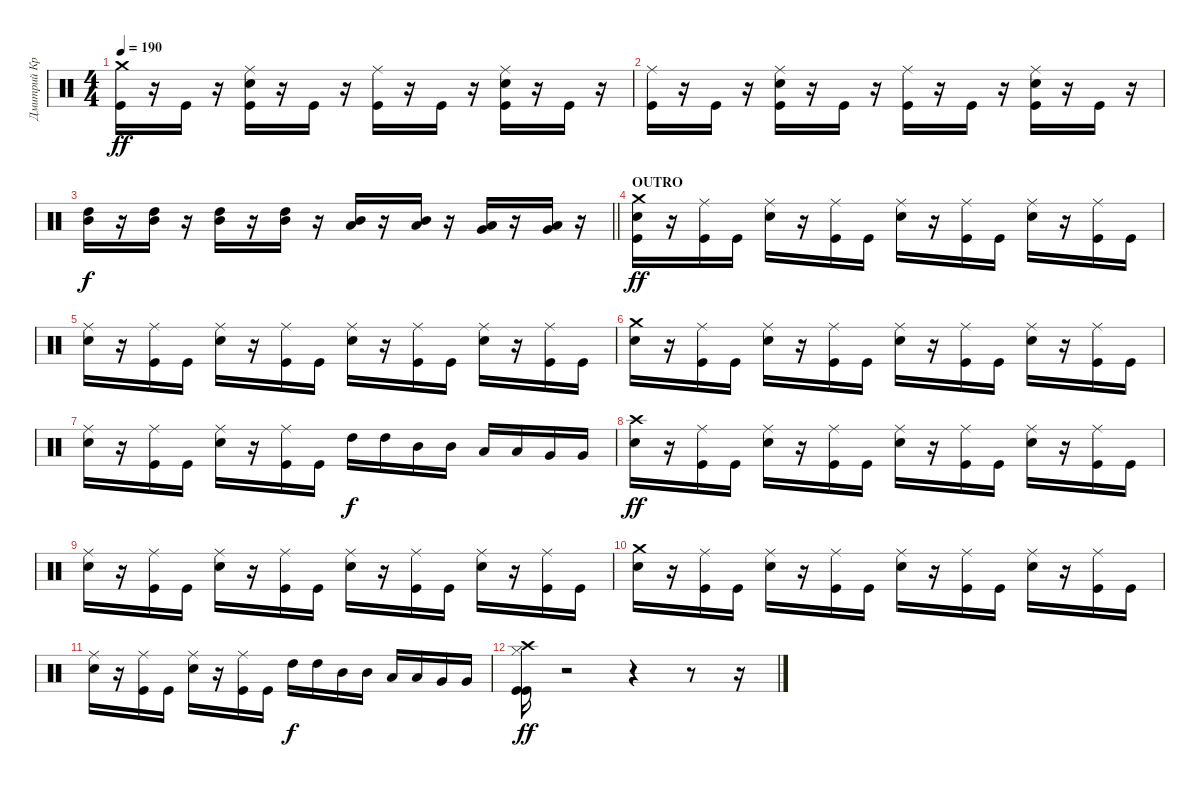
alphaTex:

\track ("Дмитрий Кривенков" "Дмитрий Кр") {instrument percussion}
\staff {score}
\articulation defaults
\ts (4 4)
\tempo 190
\clef neutral
\ks c
("Kick (hit)" "Crash medium (hit)").16{dy ff} r.16 "Kick (hit)".16 r.16 ("Snare (hit) 2" "Kick (hit)" "Ride (middle)").16 r.16 "Kick (hit)".16 r.16 ("Kick (hit)" "Ride (middle)").16 r.16 "Kick (hit)".16 r.16 ("Snare (hit) 2" "Kick (hit)" "Ride (middle)").16 r.16 "Kick (hit)".16 r.16 |
("Kick (hit)" "Ride (middle)").16 r.16 "Kick (hit)".16 r.16 ("Snare (hit) 2" "Kick (hit)" "Ride (middle)").16 r.16 "Kick (hit)".16 r.16 ("Kick (hit)" "Ride (middle)").16 r.16 "Kick (hit)".16 r.16 ("Snare (hit) 2" "Kick (hit)" "Ride (middle)").16 r.16 "Kick (hit)".16 r.16 |
\barLineRight lightlight
("High Tom (hit)" "Mid Tom (hit)").16{dy f} r.16 ("Mid Tom (hit)" "High Tom (hit)").16 r.16 ("Mid Tom (hit)" "High Tom (hit)").16 r.16 ("Mid Tom (hit)" "High Tom (hit)").16 r.16 ("Low Tom (hit)" "Mid Tom (hit)").16 r.16 ("Low Tom (hit)" "Mid Tom (hit)").16 r.16 ("Very Low Tom (hit)" "Low Tom (hit)").16 r.16 ("Very Low Tom (hit)" "Low Tom (hit)").16 r.16 |
\section ("" "OUTRO")
("Snare (hit) 2" "Crash medium (hit)" "Kick (hit)").16{dy ff} r.16 ("Ride (middle)" "Kick (hit)").16 "Kick (hit)".16 ("Ride (middle)" "Snare (hit) 2").16 r.16 ("Ride (middle)" "Kick (hit)").16 "Kick (hit)".16 ("Ride (middle)" "Snare (hit) 2").16 r.16 ("Kick (hit)" "Ride (middle)").16 "Kick (hit)".16 ("Ride (middle)" "Snare (hit) 2").16 r.16 ("Ride (middle)" "Kick (hit)").16 "Kick (hit)".16 |
("Snare (hit) 2" "Ride (middle)").16 r.16 ("Ride (middle)" "Kick (hit)").16 "Kick (hit)".16 ("Ride (middle)" "Snare (hit) 2").16 r.16 ("Ride (middle)" "Kick (hit)").16 "Kick (hit)".16 ("Ride (middle)" "Snare (hit) 2").16 r.16 ("Ride (middle)" "Kick (hit)").16 "Kick (hit)".16 ("Ride (middle)" "Snare (hit) 2").16 r.16 ("Ride (middle)" "Kick (hit)").16 "Kick (hit)".16 |
("Crash medium (hit)" "Snare (hit) 2").16 r.16 ("Ride (middle)" "Kick (hit)").16 "Kick (hit)".16 ("Ride (middle)" "Snare (hit) 2").16 r.16 ("Ride (middle)" "Kick (hit)").16 "Kick (hit)".16 ("Ride (middle)" "Snare (hit) 2").16 r.16 ("Ride (middle)" "Kick (hit)").16 "Kick (hit)".16 ("Ride (middle)" "Snare (hit) 2").16 r.16 ("Ride (middle)" "Kick (hit)").16 "Kick (hit)".16 |
("Ride (middle)" "Snare (hit) 2").16 r.16 ("Ride (middle)" "Kick (hit)").16 "Kick (hit)".16 ("Ride (middle)" "Snare (hit) 2").16 r.16 ("Ride (middle)" "Kick (hit)").16 "Kick (hit)".16 "High Tom (hit)".16{dy f} "High Tom (hit)".16 "Mid Tom (hit)".16 "Mid Tom (hit)".16 "Low Tom (hit)".16 "Low Tom (hit)".16 "Very Low Tom (hit)".16 "Very Low Tom (hit)".16 |
("Snare (hit) 2" "Crash high (hit)").16{dy ff} r.16 ("Ride (middle)" "Kick (hit)").16 "Kick (hit)".16 ("Ride (middle)" "Snare (hit) 2").16 r.16 ("Ride (middle)" "Kick (hit)").16 "Kick (hit)".16 ("Ride (middle)" "Snare (hit) 2").16 r.16 ("Kick (hit)" "Ride (middle)").16 "Kick (hit)".16 ("Ride (middle)" "Snare (hit) 2").16 r.16 ("Ride (middle)" "Kick (hit)").16 "Kick (hit)".16 |
("Snare (hit) 2" "Ride (middle)").16 r.16 ("Ride (middle)" "Kick (hit)").16 "Kick (hit)".16 ("Ride (middle)" "Snare (hit) 2").16 r.16 ("Ride (middle)" "Kick (hit)").16 "Kick (hit)".16 ("Ride (middle)" "Snare (hit) 2").16 r.16 ("Ride (middle)" "Kick (hit)").16 "Kick (hit)".16 ("Ride (middle)" "Snare (hit) 2").16 r.16 ("Ride (middle)" "Kick (hit)").16 "Kick (hit)".16 |
("Crash medium (hit)" "Snare (hit) 2").16 r.16 ("Ride (middle)" "Kick (hit)").16 "Kick (hit)".16 ("Ride (middle)" "Snare (hit) 2").16 r.16 ("Ride (middle)" "Kick (hit)").16 "Kick (hit)".16 ("Ride (middle)" "Snare (hit) 2").16 r.16 ("Ride (middle)" "Kick (hit)").16 "Kick (hit)".16 ("Ride (middle)" "Snare (hit) 2").16 r.16 ("Ride (middle)" "Kick (hit)").16 "Kick (hit)".16 |
("Ride (middle)" "Snare (hit) 2").16 r.16 ("Ride (middle)" "Kick (hit)").16 "Kick (hit)".16 ("Ride (middle)" "Snare (hit) 2").16 r.16 ("Ride (middle)" "Kick (hit)").16 "Kick (hit)".16 "High Tom (hit)".16{dy f} "High Tom (hit)".16 "Mid Tom (hit)".16 "Mid Tom (hit)".16 "Low Tom (hit)".16 "Low Tom (hit)".16 "Very Low Tom (hit)".16 "Very Low Tom (hit)".16 |
("Crash high (hit)" "Kick (hit)" "Hi-Hat (closed)" "Kick (hit)").16{dy ff} r.2 r.4 r.8 r.16
